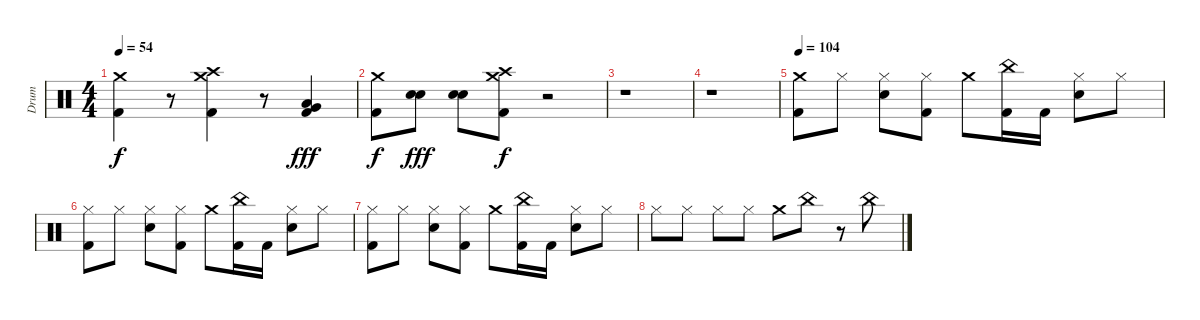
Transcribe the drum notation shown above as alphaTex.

\track ("Drum" "Drum") {instrument percussion}
\staff {score}
\articulation defaults
\ts (4 4)
\tempo 54
\clef neutral
\ks c
("Crash medium (hit)" "Kick (hit) 2").4{dy f} r.8 ("Crash high (hit)" "Crash medium (hit)" "Kick (hit) 2").4 r.8 ("Very Low Tom (hit)" "Low Tom (hit)" "Kick (hit) 2").4{dy fff} |
("Crash medium (hit)" "Kick (hit) 2").8{dy f} ("Snare (hit) 2" "Electric Snare (hit)").8{dy fff} ("Snare (hit) 2" "Electric Snare (hit)").8 ("Crash high (hit)" "Crash medium (hit)" "Kick (hit) 2").8{dy f} r.2 |
r.1 |
r.1 |
\tempo 104
("Crash medium (hit)" "Kick (hit) 2").8 "Hi-Hat (closed)".8 ("Snare (hit) 2" "Hi-Hat (closed)").8 ("Hi-Hat (closed)" "Kick (hit) 2").8 "Crash medium (hit)".8 ("China (hit)" "Kick (hit) 2").16 "Kick (hit) 2".16 ("Snare (hit) 2" "Hi-Hat (closed)").8 "Hi-Hat (closed)".8 |
("Hi-Hat (closed)" "Kick (hit) 2").8 "Hi-Hat (closed)".8 ("Snare (hit) 2" "Hi-Hat (closed)").8 ("Hi-Hat (closed)" "Kick (hit) 2").8 "Crash medium (hit)".8 ("China (hit)" "Kick (hit) 2").16 "Kick (hit) 2".16 ("Snare (hit) 2" "Hi-Hat (closed)").8 "Hi-Hat (closed)".8 |
("Hi-Hat (closed)" "Kick (hit) 2").8 "Hi-Hat (closed)".8 ("Snare (hit) 2" "Hi-Hat (closed)").8 ("Hi-Hat (closed)" "Kick (hit) 2").8 "Crash medium (hit)".8 ("China (hit)" "Kick (hit) 2").16 "Kick (hit) 2".16 ("Snare (hit) 2" "Hi-Hat (closed)").8 "Hi-Hat (closed)".8 |
"Hi-Hat (closed)".8 "Hi-Hat (closed)".8 "Hi-Hat (closed)".8 "Hi-Hat (closed)".8 "Crash medium (hit)".8 "China (hit)".8 r.8 "China (hit)".8
